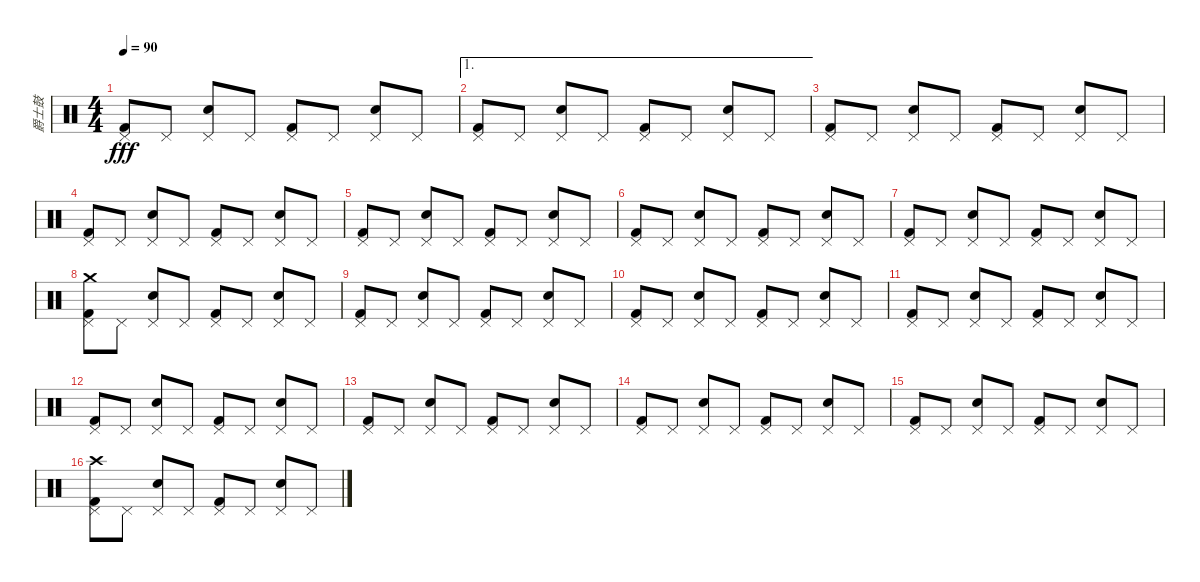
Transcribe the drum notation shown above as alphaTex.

\track ("爵士鼓" "爵士鼓") {instrument percussion}
\staff {score}
\articulation defaults
\ts (4 4)
\tempo 90
\clef neutral
\ks c
("Pedal Hi-Hat (hit)" "Kick (hit) 2").8{dy fff} "Pedal Hi-Hat (hit)".8 ("Pedal Hi-Hat (hit)" "Electric Snare (hit)").8 "Pedal Hi-Hat (hit)".8 ("Pedal Hi-Hat (hit)" "Kick (hit) 2").8 "Pedal Hi-Hat (hit)".8 ("Pedal Hi-Hat (hit)" "Electric Snare (hit)").8 "Pedal Hi-Hat (hit)".8 |
\ae 1
("Pedal Hi-Hat (hit)" "Kick (hit) 2").8 "Pedal Hi-Hat (hit)".8 ("Pedal Hi-Hat (hit)" "Electric Snare (hit)").8 "Pedal Hi-Hat (hit)".8 ("Pedal Hi-Hat (hit)" "Kick (hit) 2").8 "Pedal Hi-Hat (hit)".8 ("Pedal Hi-Hat (hit)" "Electric Snare (hit)").8 "Pedal Hi-Hat (hit)".8 |
("Pedal Hi-Hat (hit)" "Kick (hit) 2").8 "Pedal Hi-Hat (hit)".8 ("Pedal Hi-Hat (hit)" "Electric Snare (hit)").8 "Pedal Hi-Hat (hit)".8 ("Pedal Hi-Hat (hit)" "Kick (hit) 2").8 "Pedal Hi-Hat (hit)".8 ("Pedal Hi-Hat (hit)" "Electric Snare (hit)").8 "Pedal Hi-Hat (hit)".8 |
("Pedal Hi-Hat (hit)" "Kick (hit) 2").8 "Pedal Hi-Hat (hit)".8 ("Pedal Hi-Hat (hit)" "Electric Snare (hit)").8 "Pedal Hi-Hat (hit)".8 ("Pedal Hi-Hat (hit)" "Kick (hit) 2").8 "Pedal Hi-Hat (hit)".8 ("Pedal Hi-Hat (hit)" "Electric Snare (hit)").8 "Pedal Hi-Hat (hit)".8 |
("Pedal Hi-Hat (hit)" "Kick (hit) 2").8 "Pedal Hi-Hat (hit)".8 ("Pedal Hi-Hat (hit)" "Electric Snare (hit)").8 "Pedal Hi-Hat (hit)".8 ("Pedal Hi-Hat (hit)" "Kick (hit) 2").8 "Pedal Hi-Hat (hit)".8 ("Pedal Hi-Hat (hit)" "Electric Snare (hit)").8 "Pedal Hi-Hat (hit)".8 |
("Pedal Hi-Hat (hit)" "Kick (hit) 2").8 "Pedal Hi-Hat (hit)".8 ("Pedal Hi-Hat (hit)" "Electric Snare (hit)").8 "Pedal Hi-Hat (hit)".8 ("Pedal Hi-Hat (hit)" "Kick (hit) 2").8 "Pedal Hi-Hat (hit)".8 ("Pedal Hi-Hat (hit)" "Electric Snare (hit)").8 "Pedal Hi-Hat (hit)".8 |
("Pedal Hi-Hat (hit)" "Kick (hit) 2").8 "Pedal Hi-Hat (hit)".8 ("Pedal Hi-Hat (hit)" "Electric Snare (hit)").8 "Pedal Hi-Hat (hit)".8 ("Pedal Hi-Hat (hit)" "Kick (hit) 2").8 "Pedal Hi-Hat (hit)".8 ("Pedal Hi-Hat (hit)" "Electric Snare (hit)").8 "Pedal Hi-Hat (hit)".8 |
("Pedal Hi-Hat (hit)" "Crash medium (hit)" "Kick (hit) 2").8 "Pedal Hi-Hat (hit)".8 ("Pedal Hi-Hat (hit)" "Electric Snare (hit)").8 "Pedal Hi-Hat (hit)".8 ("Pedal Hi-Hat (hit)" "Kick (hit) 2").8 "Pedal Hi-Hat (hit)".8 ("Pedal Hi-Hat (hit)" "Electric Snare (hit)").8 "Pedal Hi-Hat (hit)".8 |
("Pedal Hi-Hat (hit)" "Kick (hit) 2").8 "Pedal Hi-Hat (hit)".8 ("Pedal Hi-Hat (hit)" "Electric Snare (hit)").8 "Pedal Hi-Hat (hit)".8 ("Pedal Hi-Hat (hit)" "Kick (hit) 2").8 "Pedal Hi-Hat (hit)".8 ("Pedal Hi-Hat (hit)" "Electric Snare (hit)").8 "Pedal Hi-Hat (hit)".8 |
("Pedal Hi-Hat (hit)" "Kick (hit) 2").8 "Pedal Hi-Hat (hit)".8 ("Pedal Hi-Hat (hit)" "Electric Snare (hit)").8 "Pedal Hi-Hat (hit)".8 ("Pedal Hi-Hat (hit)" "Kick (hit) 2").8 "Pedal Hi-Hat (hit)".8 ("Pedal Hi-Hat (hit)" "Electric Snare (hit)").8 "Pedal Hi-Hat (hit)".8 |
("Pedal Hi-Hat (hit)" "Kick (hit) 2").8 "Pedal Hi-Hat (hit)".8 ("Pedal Hi-Hat (hit)" "Electric Snare (hit)").8 "Pedal Hi-Hat (hit)".8 ("Pedal Hi-Hat (hit)" "Kick (hit) 2").8 "Pedal Hi-Hat (hit)".8 ("Pedal Hi-Hat (hit)" "Electric Snare (hit)").8 "Pedal Hi-Hat (hit)".8 |
("Pedal Hi-Hat (hit)" "Kick (hit) 2").8 "Pedal Hi-Hat (hit)".8 ("Pedal Hi-Hat (hit)" "Electric Snare (hit)").8 "Pedal Hi-Hat (hit)".8 ("Pedal Hi-Hat (hit)" "Kick (hit) 2").8 "Pedal Hi-Hat (hit)".8 ("Pedal Hi-Hat (hit)" "Electric Snare (hit)").8 "Pedal Hi-Hat (hit)".8 |
("Pedal Hi-Hat (hit)" "Kick (hit) 2").8 "Pedal Hi-Hat (hit)".8 ("Pedal Hi-Hat (hit)" "Electric Snare (hit)").8 "Pedal Hi-Hat (hit)".8 ("Pedal Hi-Hat (hit)" "Kick (hit) 2").8 "Pedal Hi-Hat (hit)".8 ("Pedal Hi-Hat (hit)" "Electric Snare (hit)").8 "Pedal Hi-Hat (hit)".8 |
("Pedal Hi-Hat (hit)" "Kick (hit) 2").8 "Pedal Hi-Hat (hit)".8 ("Pedal Hi-Hat (hit)" "Electric Snare (hit)").8 "Pedal Hi-Hat (hit)".8 ("Pedal Hi-Hat (hit)" "Kick (hit) 2").8 "Pedal Hi-Hat (hit)".8 ("Pedal Hi-Hat (hit)" "Electric Snare (hit)").8 "Pedal Hi-Hat (hit)".8 |
("Pedal Hi-Hat (hit)" "Kick (hit) 2").8 "Pedal Hi-Hat (hit)".8 ("Pedal Hi-Hat (hit)" "Electric Snare (hit)").8 "Pedal Hi-Hat (hit)".8 ("Pedal Hi-Hat (hit)" "Kick (hit) 2").8 "Pedal Hi-Hat (hit)".8 ("Pedal Hi-Hat (hit)" "Electric Snare (hit)").8 "Pedal Hi-Hat (hit)".8 |
("Pedal Hi-Hat (hit)" "Crash high (hit)" "Kick (hit) 2").8 "Pedal Hi-Hat (hit)".8 ("Pedal Hi-Hat (hit)" "Electric Snare (hit)").8 "Pedal Hi-Hat (hit)".8 ("Pedal Hi-Hat (hit)" "Kick (hit) 2").8 "Pedal Hi-Hat (hit)".8 ("Pedal Hi-Hat (hit)" "Electric Snare (hit)").8 "Pedal Hi-Hat (hit)".8
